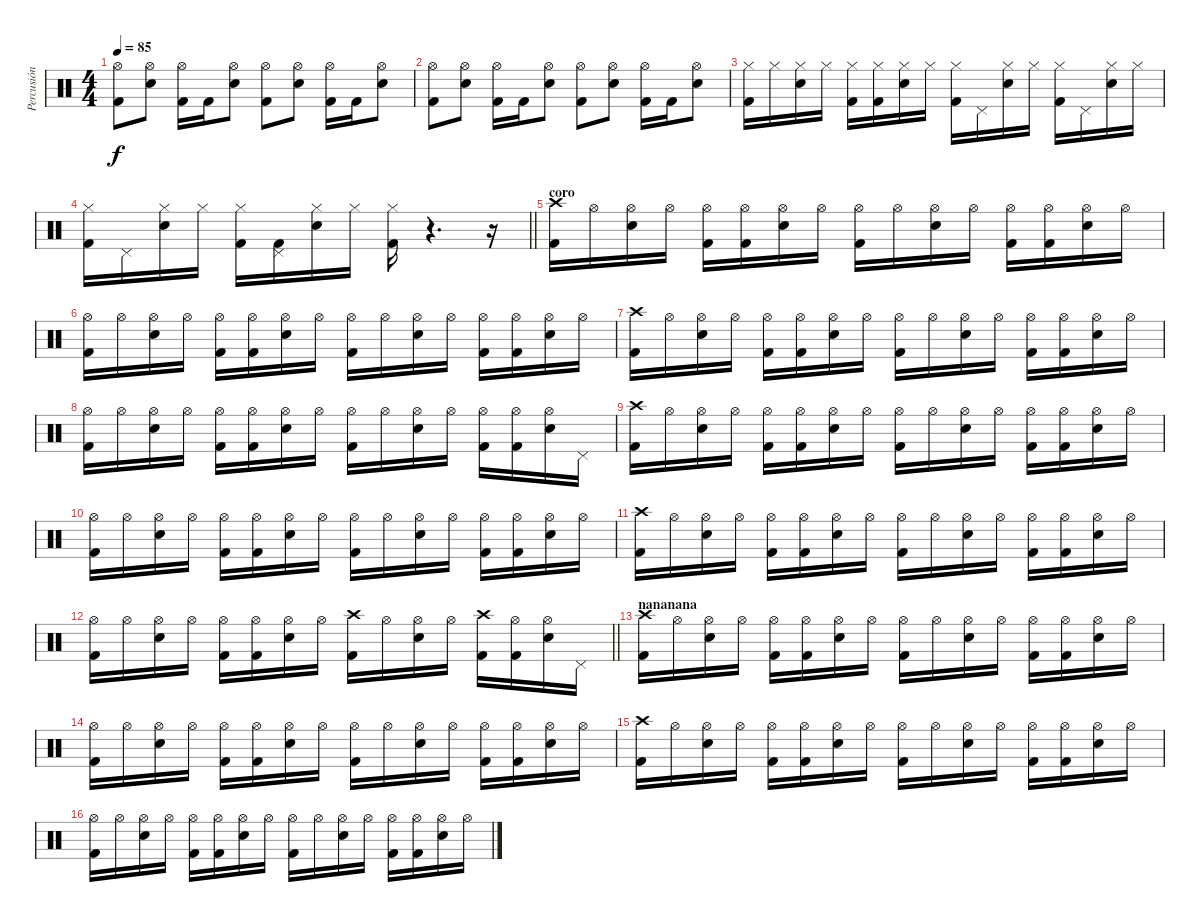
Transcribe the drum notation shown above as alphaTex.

\track ("Percusión" "Percusión") {instrument percussion}
\staff {score}
\articulation defaults
\ts (4 4)
\tempo 85
\clef neutral
\ks c
("Hi-Hat (open)" "Kick (hit) 2").8{dy f} ("Hi-Hat (open)" "Electric Snare (hit)").8 ("Hi-Hat (open)" "Kick (hit) 2").16 "Kick (hit) 2".16 ("Hi-Hat (open)" "Electric Snare (hit)").8 ("Hi-Hat (open)" "Kick (hit) 2").8 ("Hi-Hat (open)" "Electric Snare (hit)").8 ("Hi-Hat (open)" "Kick (hit) 2").16 "Kick (hit) 2".16 ("Hi-Hat (open)" "Electric Snare (hit)").8 |
("Hi-Hat (open)" "Kick (hit) 2").8 ("Hi-Hat (open)" "Electric Snare (hit)").8 ("Hi-Hat (open)" "Kick (hit) 2").16 "Kick (hit) 2".16 ("Hi-Hat (open)" "Electric Snare (hit)").8 ("Hi-Hat (open)" "Kick (hit) 2").8 ("Hi-Hat (open)" "Electric Snare (hit)").8 ("Hi-Hat (open)" "Kick (hit) 2").16 "Kick (hit) 2".16 ("Hi-Hat (open)" "Electric Snare (hit)").8 |
("Hi-Hat (closed)" "Kick (hit) 2").16 "Hi-Hat (closed)".16 ("Hi-Hat (closed)" "Electric Snare (hit)").16 "Hi-Hat (closed)".16 ("Hi-Hat (closed)" "Kick (hit) 2").16 ("Hi-Hat (closed)" "Kick (hit) 2").16 ("Hi-Hat (closed)" "Electric Snare (hit)").16 "Hi-Hat (closed)".16 ("Hi-Hat (closed)" "Kick (hit) 2").16 "Pedal Hi-Hat (hit)".16 ("Hi-Hat (closed)" "Electric Snare (hit)").16 "Hi-Hat (closed)".16 ("Hi-Hat (closed)" "Kick (hit) 2").16 "Pedal Hi-Hat (hit)".16 ("Hi-Hat (closed)" "Electric Snare (hit)").16 "Hi-Hat (closed)".16 |
\barLineRight lightlight
("Hi-Hat (closed)" "Kick (hit) 2").16 "Pedal Hi-Hat (hit)".16 ("Hi-Hat (closed)" "Electric Snare (hit)").16 "Hi-Hat (closed)".16 ("Hi-Hat (closed)" "Kick (hit) 2").16 ("Pedal Hi-Hat (hit)" "Kick (hit) 2").16 ("Hi-Hat (closed)" "Electric Snare (hit)").16 "Hi-Hat (closed)".16 ("Hi-Hat (closed)" "Kick (hit) 2").16 r.4{d} r.16 |
\section ("" "coro")
("Crash high (hit)" "Kick (hit) 2").16 "Hi-Hat (open)".16 ("Hi-Hat (open)" "Electric Snare (hit)").16 "Hi-Hat (open)".16 ("Hi-Hat (open)" "Kick (hit) 2").16 ("Hi-Hat (open)" "Kick (hit) 2").16 ("Hi-Hat (open)" "Electric Snare (hit)").16 "Hi-Hat (open)".16 ("Hi-Hat (open)" "Kick (hit) 2").16 "Hi-Hat (open)".16 ("Hi-Hat (open)" "Electric Snare (hit)").16 "Hi-Hat (open)".16 ("Hi-Hat (open)" "Kick (hit) 2").16 ("Hi-Hat (open)" "Kick (hit) 2").16 ("Hi-Hat (open)" "Electric Snare (hit)").16 "Hi-Hat (open)".16 |
("Hi-Hat (open)" "Kick (hit) 2").16 "Hi-Hat (open)".16 ("Hi-Hat (open)" "Electric Snare (hit)").16 "Hi-Hat (open)".16 ("Hi-Hat (open)" "Kick (hit) 2").16 ("Hi-Hat (open)" "Kick (hit) 2").16 ("Hi-Hat (open)" "Electric Snare (hit)").16 "Hi-Hat (open)".16 ("Hi-Hat (open)" "Kick (hit) 2").16 "Hi-Hat (open)".16 ("Hi-Hat (open)" "Electric Snare (hit)").16 "Hi-Hat (open)".16 ("Hi-Hat (open)" "Kick (hit) 2").16 ("Hi-Hat (open)" "Kick (hit) 2").16 ("Hi-Hat (open)" "Electric Snare (hit)").16 "Hi-Hat (open)".16 |
("Crash high (hit)" "Kick (hit) 2").16 "Hi-Hat (open)".16 ("Hi-Hat (open)" "Electric Snare (hit)").16 "Hi-Hat (open)".16 ("Hi-Hat (open)" "Kick (hit) 2").16 ("Hi-Hat (open)" "Kick (hit) 2").16 ("Hi-Hat (open)" "Electric Snare (hit)").16 "Hi-Hat (open)".16 ("Hi-Hat (open)" "Kick (hit) 2").16 "Hi-Hat (open)".16 ("Hi-Hat (open)" "Electric Snare (hit)").16 "Hi-Hat (open)".16 ("Hi-Hat (open)" "Kick (hit) 2").16 ("Hi-Hat (open)" "Kick (hit) 2").16 ("Hi-Hat (open)" "Electric Snare (hit)").16 "Hi-Hat (open)".16 |
("Hi-Hat (open)" "Kick (hit) 2").16 "Hi-Hat (open)".16 ("Hi-Hat (open)" "Electric Snare (hit)").16 "Hi-Hat (open)".16 ("Hi-Hat (open)" "Kick (hit) 2").16 ("Hi-Hat (open)" "Kick (hit) 2").16 ("Hi-Hat (open)" "Electric Snare (hit)").16 "Hi-Hat (open)".16 ("Hi-Hat (open)" "Kick (hit) 2").16 "Hi-Hat (open)".16 ("Hi-Hat (open)" "Electric Snare (hit)").16 "Hi-Hat (open)".16 ("Hi-Hat (open)" "Kick (hit) 2").16 ("Hi-Hat (open)" "Kick (hit) 2").16 ("Hi-Hat (open)" "Electric Snare (hit)").16 "Pedal Hi-Hat (hit)".16 |
("Crash high (hit)" "Kick (hit) 2").16 "Hi-Hat (open)".16 ("Hi-Hat (open)" "Electric Snare (hit)").16 "Hi-Hat (open)".16 ("Hi-Hat (open)" "Kick (hit) 2").16 ("Hi-Hat (open)" "Kick (hit) 2").16 ("Hi-Hat (open)" "Electric Snare (hit)").16 "Hi-Hat (open)".16 ("Hi-Hat (open)" "Kick (hit) 2").16 "Hi-Hat (open)".16 ("Hi-Hat (open)" "Electric Snare (hit)").16 "Hi-Hat (open)".16 ("Hi-Hat (open)" "Kick (hit) 2").16 ("Hi-Hat (open)" "Kick (hit) 2").16 ("Hi-Hat (open)" "Electric Snare (hit)").16 "Hi-Hat (open)".16 |
("Hi-Hat (open)" "Kick (hit) 2").16 "Hi-Hat (open)".16 ("Hi-Hat (open)" "Electric Snare (hit)").16 "Hi-Hat (open)".16 ("Hi-Hat (open)" "Kick (hit) 2").16 ("Hi-Hat (open)" "Kick (hit) 2").16 ("Hi-Hat (open)" "Electric Snare (hit)").16 "Hi-Hat (open)".16 ("Hi-Hat (open)" "Kick (hit) 2").16 "Hi-Hat (open)".16 ("Hi-Hat (open)" "Electric Snare (hit)").16 "Hi-Hat (open)".16 ("Hi-Hat (open)" "Kick (hit) 2").16 ("Hi-Hat (open)" "Kick (hit) 2").16 ("Hi-Hat (open)" "Electric Snare (hit)").16 "Hi-Hat (open)".16 |
("Crash high (hit)" "Kick (hit) 2").16 "Hi-Hat (open)".16 ("Hi-Hat (open)" "Electric Snare (hit)").16 "Hi-Hat (open)".16 ("Hi-Hat (open)" "Kick (hit) 2").16 ("Hi-Hat (open)" "Kick (hit) 2").16 ("Hi-Hat (open)" "Electric Snare (hit)").16 "Hi-Hat (open)".16 ("Hi-Hat (open)" "Kick (hit) 2").16 "Hi-Hat (open)".16 ("Hi-Hat (open)" "Electric Snare (hit)").16 "Hi-Hat (open)".16 ("Hi-Hat (open)" "Kick (hit) 2").16 ("Hi-Hat (open)" "Kick (hit) 2").16 ("Hi-Hat (open)" "Electric Snare (hit)").16 "Hi-Hat (open)".16 |
\barLineRight lightlight
("Hi-Hat (open)" "Kick (hit) 2").16 "Hi-Hat (open)".16 ("Hi-Hat (open)" "Electric Snare (hit)").16 "Hi-Hat (open)".16 ("Hi-Hat (open)" "Kick (hit) 2").16 ("Hi-Hat (open)" "Kick (hit) 2").16 ("Hi-Hat (open)" "Electric Snare (hit)").16 "Hi-Hat (open)".16 ("Crash high (hit)" "Kick (hit) 2").16 "Hi-Hat (open)".16 ("Hi-Hat (open)" "Electric Snare (hit)").16 "Hi-Hat (open)".16 ("Crash high (hit)" "Kick (hit) 2").16 ("Hi-Hat (open)" "Kick (hit) 2").16 ("Hi-Hat (open)" "Electric Snare (hit)").16 "Pedal Hi-Hat (hit)".16 |
\section ("" "nananana")
("Crash high (hit)" "Kick (hit) 2").16 "Hi-Hat (open)".16 ("Hi-Hat (open)" "Electric Snare (hit)").16 "Hi-Hat (open)".16 ("Hi-Hat (open)" "Kick (hit) 2").16 ("Hi-Hat (open)" "Kick (hit) 2").16 ("Hi-Hat (open)" "Electric Snare (hit)").16 "Hi-Hat (open)".16 ("Hi-Hat (open)" "Kick (hit) 2").16 "Hi-Hat (open)".16 ("Hi-Hat (open)" "Electric Snare (hit)").16 "Hi-Hat (open)".16 ("Hi-Hat (open)" "Kick (hit) 2").16 ("Hi-Hat (open)" "Kick (hit) 2").16 ("Hi-Hat (open)" "Electric Snare (hit)").16 "Hi-Hat (open)".16 |
("Hi-Hat (open)" "Kick (hit) 2").16 "Hi-Hat (open)".16 ("Hi-Hat (open)" "Electric Snare (hit)").16 "Hi-Hat (open)".16 ("Hi-Hat (open)" "Kick (hit) 2").16 ("Hi-Hat (open)" "Kick (hit) 2").16 ("Hi-Hat (open)" "Electric Snare (hit)").16 "Hi-Hat (open)".16 ("Hi-Hat (open)" "Kick (hit) 2").16 "Hi-Hat (open)".16 ("Hi-Hat (open)" "Electric Snare (hit)").16 "Hi-Hat (open)".16 ("Hi-Hat (open)" "Kick (hit) 2").16 ("Hi-Hat (open)" "Kick (hit) 2").16 ("Hi-Hat (open)" "Electric Snare (hit)").16 "Hi-Hat (open)".16 |
("Crash high (hit)" "Kick (hit) 2").16 "Hi-Hat (open)".16 ("Hi-Hat (open)" "Electric Snare (hit)").16 "Hi-Hat (open)".16 ("Hi-Hat (open)" "Kick (hit) 2").16 ("Hi-Hat (open)" "Kick (hit) 2").16 ("Hi-Hat (open)" "Electric Snare (hit)").16 "Hi-Hat (open)".16 ("Hi-Hat (open)" "Kick (hit) 2").16 "Hi-Hat (open)".16 ("Hi-Hat (open)" "Electric Snare (hit)").16 "Hi-Hat (open)".16 ("Hi-Hat (open)" "Kick (hit) 2").16 ("Hi-Hat (open)" "Kick (hit) 2").16 ("Hi-Hat (open)" "Electric Snare (hit)").16 "Hi-Hat (open)".16 |
("Hi-Hat (open)" "Kick (hit) 2").16 "Hi-Hat (open)".16 ("Hi-Hat (open)" "Electric Snare (hit)").16 "Hi-Hat (open)".16 ("Hi-Hat (open)" "Kick (hit) 2").16 ("Hi-Hat (open)" "Kick (hit) 2").16 ("Hi-Hat (open)" "Electric Snare (hit)").16 "Hi-Hat (open)".16 ("Hi-Hat (open)" "Kick (hit) 2").16 "Hi-Hat (open)".16 ("Hi-Hat (open)" "Electric Snare (hit)").16 "Hi-Hat (open)".16 ("Hi-Hat (open)" "Kick (hit) 2").16 ("Hi-Hat (open)" "Kick (hit) 2").16 ("Hi-Hat (open)" "Electric Snare (hit)").16 "Hi-Hat (open)".16
